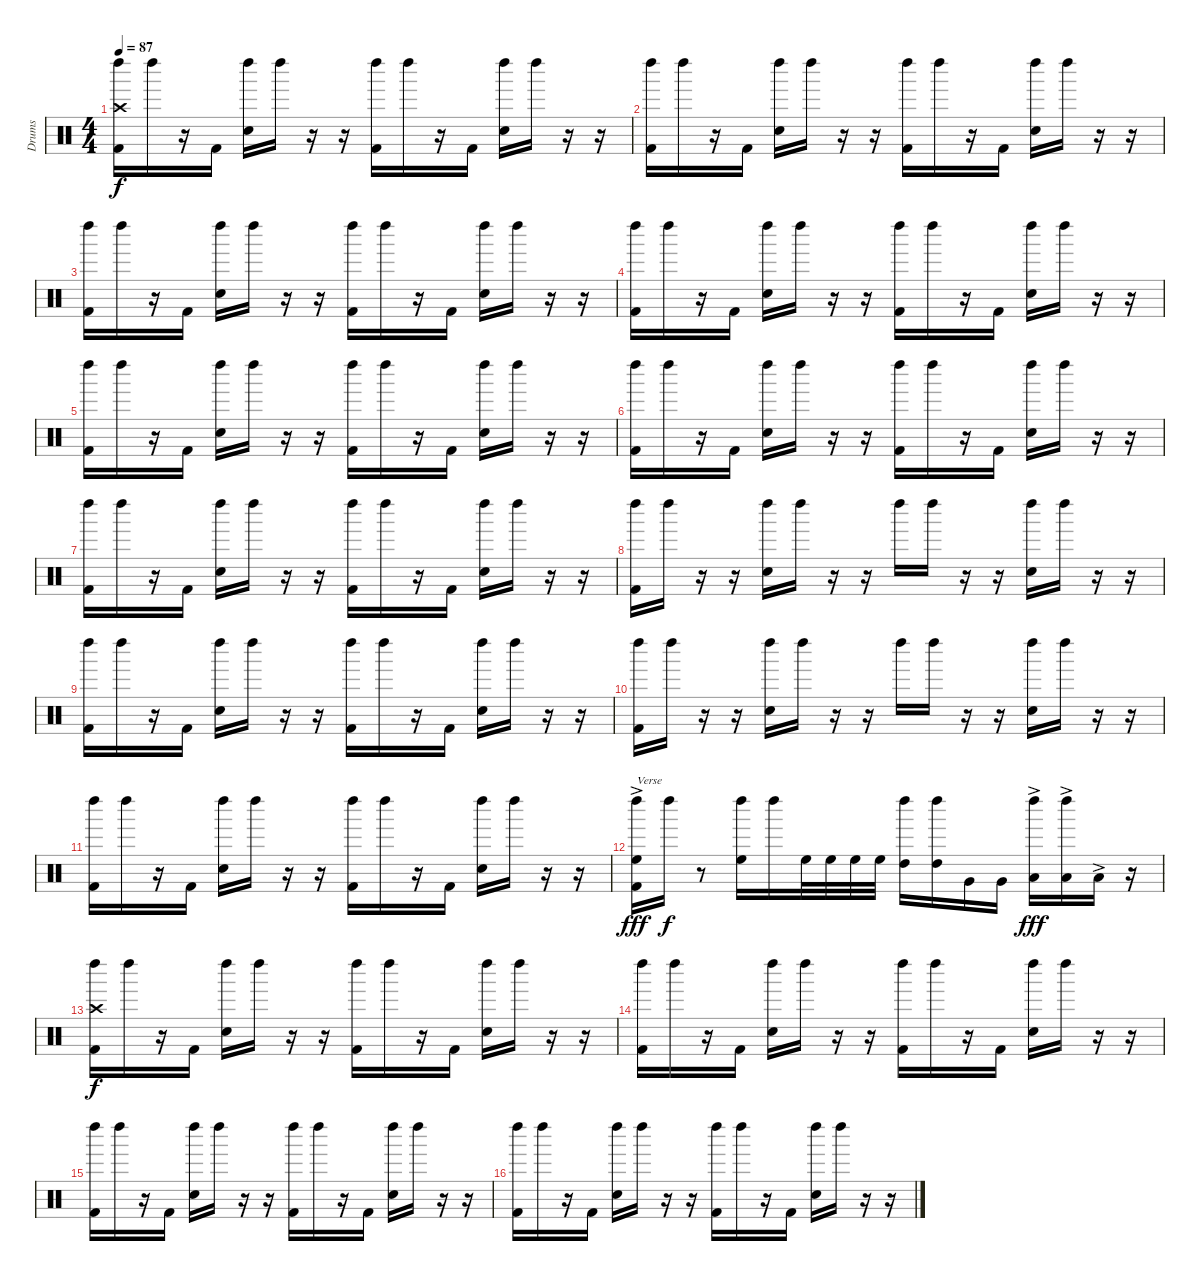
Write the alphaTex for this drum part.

\track ("Drums" "Drums") {instrument percussion}
\staff {score}
\articulation defaults
\ts (4 4)
\tempo 87
\clef neutral
\ks c
("Left Maraca (hit)" "Crash high (hit)" "Kick (hit) 2").16{dy f} "Left Maraca (hit)".16 r.16 "Kick (hit) 2".16 ("Left Maraca (hit)" "Hand Clap (hit)").16 "Left Maraca (hit)".16 r.16 r.16 ("Left Maraca (hit)" "Kick (hit) 2").16 "Left Maraca (hit)".16 r.16 "Kick (hit) 2".16 ("Left Maraca (hit)" "Hand Clap (hit)").16 "Left Maraca (hit)".16 r.16 r.16 |
("Left Maraca (hit)" "Kick (hit) 2").16 "Left Maraca (hit)".16 r.16 "Kick (hit) 2".16 ("Left Maraca (hit)" "Hand Clap (hit)").16 "Left Maraca (hit)".16 r.16 r.16 ("Left Maraca (hit)" "Kick (hit) 2").16 "Left Maraca (hit)".16 r.16 "Kick (hit) 2".16 ("Left Maraca (hit)" "Hand Clap (hit)").16 "Left Maraca (hit)".16 r.16 r.16 |
("Left Maraca (hit)" "Kick (hit) 2").16 "Left Maraca (hit)".16 r.16 "Kick (hit) 2".16 ("Left Maraca (hit)" "Hand Clap (hit)").16 "Left Maraca (hit)".16 r.16 r.16 ("Left Maraca (hit)" "Kick (hit) 2").16 "Left Maraca (hit)".16 r.16 "Kick (hit) 2".16 ("Left Maraca (hit)" "Hand Clap (hit)").16 "Left Maraca (hit)".16 r.16 r.16 |
("Left Maraca (hit)" "Kick (hit) 2").16 "Left Maraca (hit)".16 r.16 "Kick (hit) 2".16 ("Left Maraca (hit)" "Hand Clap (hit)").16 "Left Maraca (hit)".16 r.16 r.16 ("Left Maraca (hit)" "Kick (hit) 2").16 "Left Maraca (hit)".16 r.16 "Kick (hit) 2".16 ("Left Maraca (hit)" "Hand Clap (hit)").16 "Left Maraca (hit)".16 r.16 r.16 |
("Left Maraca (hit)" "Kick (hit) 2").16 "Left Maraca (hit)".16 r.16 "Kick (hit) 2".16 ("Left Maraca (hit)" "Hand Clap (hit)").16 "Left Maraca (hit)".16 r.16 r.16 ("Left Maraca (hit)" "Kick (hit) 2").16 "Left Maraca (hit)".16 r.16 "Kick (hit) 2".16 ("Left Maraca (hit)" "Hand Clap (hit)").16 "Left Maraca (hit)".16 r.16 r.16 |
("Left Maraca (hit)" "Kick (hit) 2").16 "Left Maraca (hit)".16 r.16 "Kick (hit) 2".16 ("Left Maraca (hit)" "Hand Clap (hit)").16 "Left Maraca (hit)".16 r.16 r.16 ("Left Maraca (hit)" "Kick (hit) 2").16 "Left Maraca (hit)".16 r.16 "Kick (hit) 2".16 ("Left Maraca (hit)" "Hand Clap (hit)").16 "Left Maraca (hit)".16 r.16 r.16 |
("Left Maraca (hit)" "Kick (hit) 2").16 "Left Maraca (hit)".16 r.16 "Kick (hit) 2".16 ("Left Maraca (hit)" "Hand Clap (hit)").16 "Left Maraca (hit)".16 r.16 r.16 ("Left Maraca (hit)" "Kick (hit) 2").16 "Left Maraca (hit)".16 r.16 "Kick (hit) 2".16 ("Left Maraca (hit)" "Hand Clap (hit)").16 "Left Maraca (hit)".16 r.16 r.16 |
("Left Maraca (hit)" "Kick (hit) 2").16 "Left Maraca (hit)".16 r.16 r.16 ("Left Maraca (hit)" "Hand Clap (hit)").16 "Left Maraca (hit)".16 r.16 r.16 "Left Maraca (hit)".16 "Left Maraca (hit)".16 r.16 r.16 ("Left Maraca (hit)" "Hand Clap (hit)").16 "Left Maraca (hit)".16 r.16 r.16 |
("Left Maraca (hit)" "Kick (hit) 2").16 "Left Maraca (hit)".16 r.16 "Kick (hit) 2".16 ("Left Maraca (hit)" "Hand Clap (hit)").16 "Left Maraca (hit)".16 r.16 r.16 ("Left Maraca (hit)" "Kick (hit) 2").16 "Left Maraca (hit)".16 r.16 "Kick (hit) 2".16 ("Left Maraca (hit)" "Hand Clap (hit)").16 "Left Maraca (hit)".16 r.16 r.16 |
("Left Maraca (hit)" "Kick (hit) 2").16 "Left Maraca (hit)".16 r.16 r.16 ("Left Maraca (hit)" "Hand Clap (hit)").16 "Left Maraca (hit)".16 r.16 r.16 "Left Maraca (hit)".16 "Left Maraca (hit)".16 r.16 r.16 ("Left Maraca (hit)" "Hand Clap (hit)").16 "Left Maraca (hit)".16 r.16 r.16 |
("Left Maraca (hit)" "Kick (hit) 2").16 "Left Maraca (hit)".16 r.16 "Kick (hit) 2".16 ("Left Maraca (hit)" "Hand Clap (hit)").16 "Left Maraca (hit)".16 r.16 r.16 ("Left Maraca (hit)" "Kick (hit) 2").16 "Left Maraca (hit)".16 r.16 "Kick (hit) 2".16 ("Left Maraca (hit)" "Hand Clap (hit)").16 "Left Maraca (hit)".16 r.16 r.16 |
("Left Maraca (hit)" "High Floor Tom (hit)"{ac} "Kick (hit) 2").16{txt "Verse" dy fff} "Left Maraca (hit)".16{dy f} r.8 ("Left Maraca (hit)" "High Floor Tom (hit)").16 "Left Maraca (hit)".16 "High Floor Tom (hit)".32 "High Floor Tom (hit)".32 "High Floor Tom (hit)".32 "High Floor Tom (hit)".32 ("Left Maraca (hit)" "High Tom (hit)").16 ("Left Maraca (hit)" "High Tom (hit)").16 "Very Low Tom (hit)".16 "Very Low Tom (hit)".16 ("Left Maraca (hit)" "Low Floor Tom (hit)"{ac}).16{dy fff} ("Left Maraca (hit)" "Low Floor Tom (hit)"{ac}).16 "Low Floor Tom (hit)"{ac}.16 r.16 |
("Left Maraca (hit)" "Crash high (hit)" "Kick (hit) 2").16{dy f} "Left Maraca (hit)".16 r.16 "Kick (hit) 2".16 ("Left Maraca (hit)" "Hand Clap (hit)").16 "Left Maraca (hit)".16 r.16 r.16 ("Left Maraca (hit)" "Kick (hit) 2").16 "Left Maraca (hit)".16 r.16 "Kick (hit) 2".16 ("Left Maraca (hit)" "Hand Clap (hit)").16 "Left Maraca (hit)".16 r.16 r.16 |
("Left Maraca (hit)" "Kick (hit) 2").16 "Left Maraca (hit)".16 r.16 "Kick (hit) 2".16 ("Left Maraca (hit)" "Hand Clap (hit)").16 "Left Maraca (hit)".16 r.16 r.16 ("Left Maraca (hit)" "Kick (hit) 2").16 "Left Maraca (hit)".16 r.16 "Kick (hit) 2".16 ("Left Maraca (hit)" "Hand Clap (hit)").16 "Left Maraca (hit)".16 r.16 r.16 |
("Left Maraca (hit)" "Kick (hit) 2").16 "Left Maraca (hit)".16 r.16 "Kick (hit) 2".16 ("Left Maraca (hit)" "Hand Clap (hit)").16 "Left Maraca (hit)".16 r.16 r.16 ("Left Maraca (hit)" "Kick (hit) 2").16 "Left Maraca (hit)".16 r.16 "Kick (hit) 2".16 ("Left Maraca (hit)" "Hand Clap (hit)").16 "Left Maraca (hit)".16 r.16 r.16 |
("Left Maraca (hit)" "Kick (hit) 2").16 "Left Maraca (hit)".16 r.16 "Kick (hit) 2".16 ("Left Maraca (hit)" "Hand Clap (hit)").16 "Left Maraca (hit)".16 r.16 r.16 ("Left Maraca (hit)" "Kick (hit) 2").16 "Left Maraca (hit)".16 r.16 "Kick (hit) 2".16 ("Left Maraca (hit)" "Hand Clap (hit)").16 "Left Maraca (hit)".16 r.16 r.16
